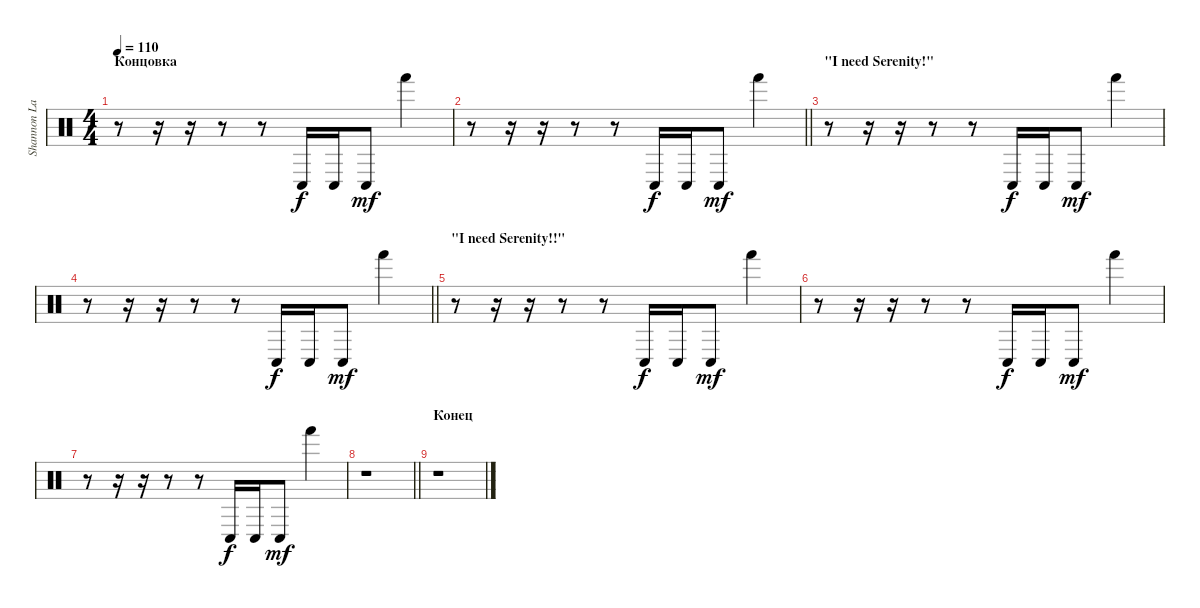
\track ("Shannon Larkin [Percussion 2]" "Shannon La") {instrument percussion}
\staff {score}
\articulation defaults
\ts (4 4)
\section ("" "Концовка")
\tempo 110
\clef neutral
\ks c
r.8{dy mf} r.16 r.16 r.8 r.8 "Conga low (hit)".16{dy f} "Conga low (hit)".16 "Conga low (hit)".8{dy mf} "Hand (hit)".4 |
\barLineRight lightlight
r.8 r.16 r.16 r.8 r.8 "Conga low (hit)".16{dy f} "Conga low (hit)".16 "Conga low (hit)".8{dy mf} "Hand (hit)".4 |
\section ("" "\"I need Serenity!\"")
r.8 r.16 r.16 r.8 r.8 "Conga low (hit)".16{dy f} "Conga low (hit)".16 "Conga low (hit)".8{dy mf} "Hand (hit)".4 |
\barLineRight lightlight
r.8 r.16 r.16 r.8 r.8 "Conga low (hit)".16{dy f} "Conga low (hit)".16 "Conga low (hit)".8{dy mf} "Hand (hit)".4 |
\section ("" "\"I need Serenity!!\"")
r.8 r.16 r.16 r.8 r.8 "Conga low (hit)".16{dy f} "Conga low (hit)".16 "Conga low (hit)".8{dy mf} "Hand (hit)".4 |
r.8 r.16 r.16 r.8 r.8 "Conga low (hit)".16{dy f} "Conga low (hit)".16 "Conga low (hit)".8{dy mf} "Hand (hit)".4 |
r.8 r.16 r.16 r.8 r.8 "Conga low (hit)".16{dy f} "Conga low (hit)".16 "Conga low (hit)".8{dy mf} "Hand (hit)".4 |
\barLineRight lightlight
r.1 |
\section ("" "Конец")
r.1
